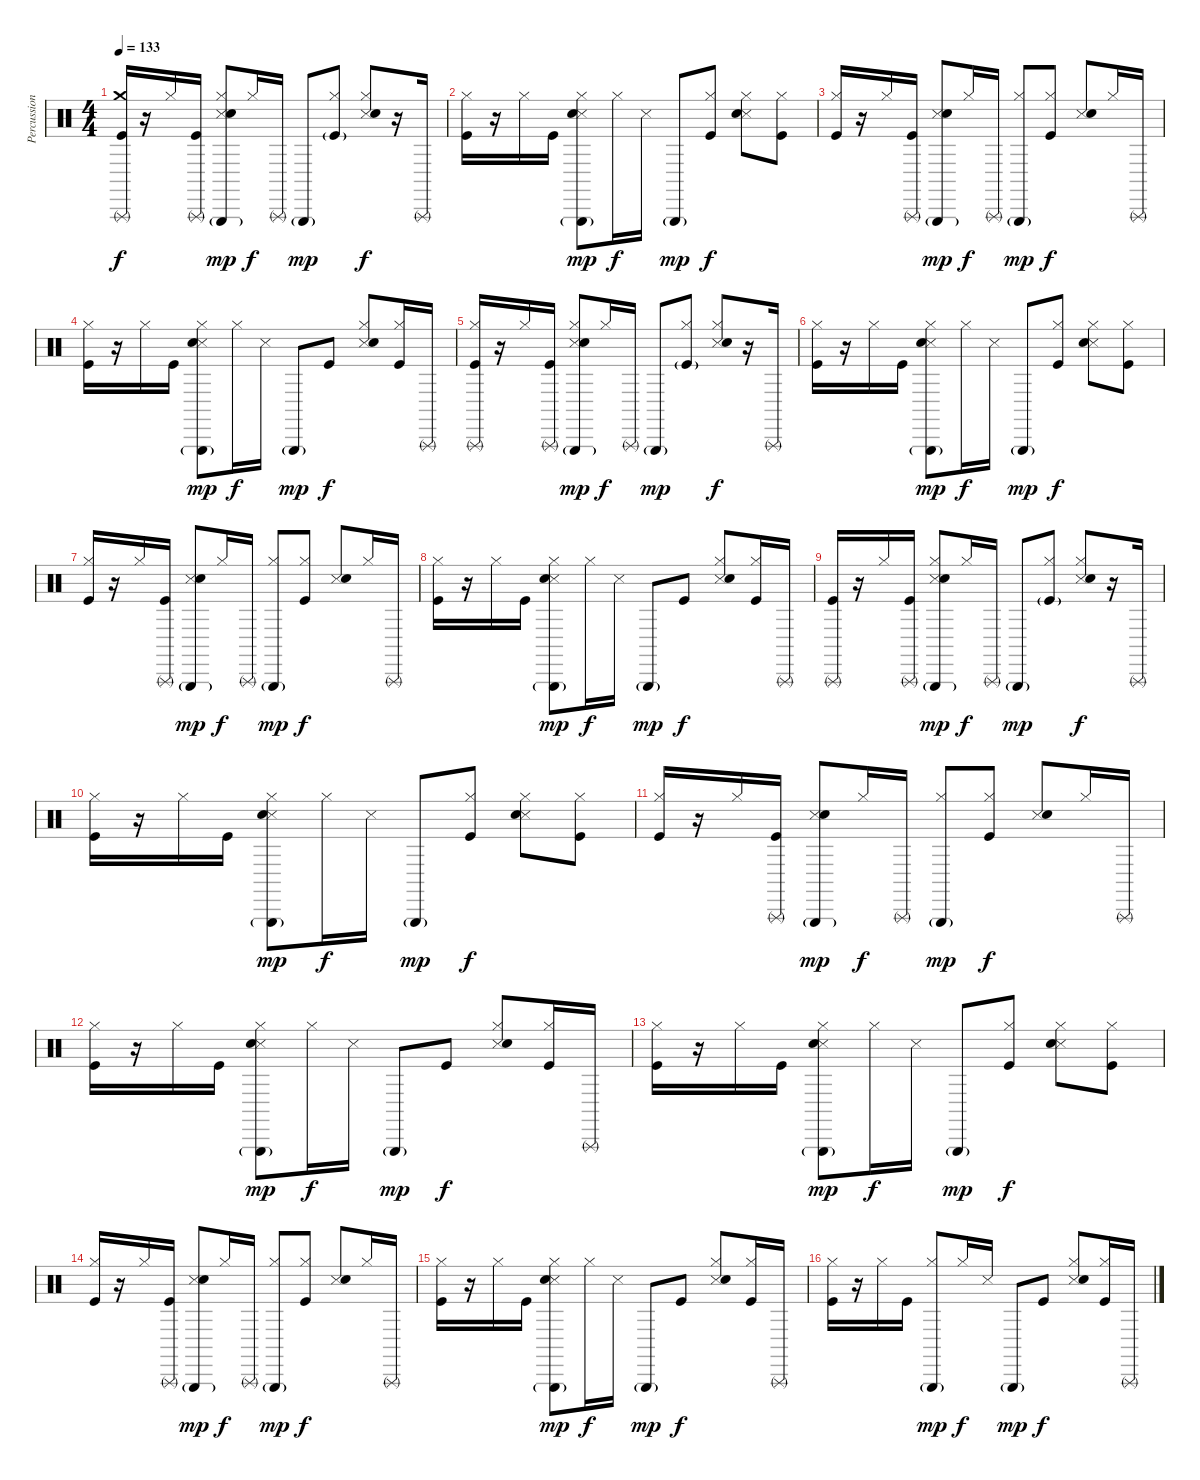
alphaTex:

\track ("Percussion" "Percussion") {instrument percussion}
\staff {score}
\articulation defaults
\ts (4 4)
\tempo 133
\clef neutral
\ks c
("Crash medium (hit)" "Triangle (rnute)" "Kick (hit)").16{dy f} r.16 "Hi-Hat (closed)".16 ("Triangle (rnute)" "Kick (hit)").16 ("Hi-Hat (closed)" "Triangle (hit)"{g} "Snare (side stick) 3" "Electric Snare (hit)").8{dy mp} "Hi-Hat (closed)".16{dy f} "Triangle (rnute)".16 "Triangle (hit)"{g}.8{dy mp} ("Hi-Hat (closed)" "Kick (hit)"{g}).8 ("Hi-Hat (closed)" "Snare (side stick) 3" "Electric Snare (hit)").8{dy f} r.16 "Triangle (rnute)".16 |
("Hi-Hat (closed)" "Kick (hit)").16 r.16 "Hi-Hat (closed)".16 "Kick (hit)".16 ("Hi-Hat (closed)" "Triangle (hit)"{g} "Snare (side stick) 3" "Electric Snare (hit)").8{dy mp} "Hi-Hat (closed)".16{dy f} "Snare (side stick) 3".16 "Triangle (hit)"{g}.8{dy mp} ("Hi-Hat (closed)" "Kick (hit)").8{dy f} ("Hi-Hat (closed)" "Snare (side stick) 3" "Electric Snare (hit)").8 ("Hi-Hat (closed)" "Kick (hit)").8 |
("Hi-Hat (closed)" "Kick (hit)").16 r.16 "Hi-Hat (closed)".16 ("Triangle (rnute)" "Kick (hit)").16 ("Triangle (hit)"{g} "Snare (side stick) 3" "Electric Snare (hit)").8{dy mp} "Hi-Hat (closed)".16{dy f} "Triangle (rnute)".16 ("Hi-Hat (closed)" "Triangle (hit)"{g}).8{dy mp} ("Hi-Hat (closed)" "Kick (hit)").8{dy f} ("Snare (side stick) 3" "Electric Snare (hit)").8 "Hi-Hat (closed)".16 "Triangle (rnute)".16 |
("Hi-Hat (closed)" "Kick (hit)").16 r.16 "Hi-Hat (closed)".16 "Kick (hit)".16 ("Hi-Hat (closed)" "Triangle (hit)"{g} "Snare (side stick) 3" "Electric Snare (hit)").8{dy mp} "Hi-Hat (closed)".16{dy f} "Snare (side stick) 3".16 "Triangle (hit)"{g}.8{dy mp} "Kick (hit)".8{dy f} ("Hi-Hat (closed)" "Snare (side stick) 3" "Electric Snare (hit)").8 ("Hi-Hat (closed)" "Kick (hit)").16 "Triangle (rnute)".16 |
("Hi-Hat (closed)" "Triangle (rnute)" "Kick (hit)").16 r.16 "Hi-Hat (closed)".16 ("Triangle (rnute)" "Kick (hit)").16 ("Hi-Hat (closed)" "Triangle (hit)"{g} "Snare (side stick) 3" "Electric Snare (hit)").8{dy mp} "Hi-Hat (closed)".16{dy f} "Triangle (rnute)".16 "Triangle (hit)"{g}.8{dy mp} ("Hi-Hat (closed)" "Kick (hit)"{g}).8 ("Hi-Hat (closed)" "Snare (side stick) 3" "Electric Snare (hit)").8{dy f} r.16 "Triangle (rnute)".16 |
("Hi-Hat (closed)" "Kick (hit)").16 r.16 "Hi-Hat (closed)".16 "Kick (hit)".16 ("Hi-Hat (closed)" "Triangle (hit)"{g} "Snare (side stick) 3" "Electric Snare (hit)").8{dy mp} "Hi-Hat (closed)".16{dy f} "Snare (side stick) 3".16 "Triangle (hit)"{g}.8{dy mp} ("Hi-Hat (closed)" "Kick (hit)").8{dy f} ("Hi-Hat (closed)" "Snare (side stick) 3" "Electric Snare (hit)").8 ("Hi-Hat (closed)" "Kick (hit)").8 |
("Hi-Hat (closed)" "Kick (hit)").16 r.16 "Hi-Hat (closed)".16 ("Triangle (rnute)" "Kick (hit)").16 ("Triangle (hit)"{g} "Snare (side stick) 3" "Electric Snare (hit)").8{dy mp} "Hi-Hat (closed)".16{dy f} "Triangle (rnute)".16 ("Hi-Hat (closed)" "Triangle (hit)"{g}).8{dy mp} ("Hi-Hat (closed)" "Kick (hit)").8{dy f} ("Snare (side stick) 3" "Electric Snare (hit)").8 "Hi-Hat (closed)".16 "Triangle (rnute)".16 |
("Hi-Hat (closed)" "Kick (hit)").16 r.16 "Hi-Hat (closed)".16 "Kick (hit)".16 ("Hi-Hat (closed)" "Triangle (hit)"{g} "Snare (side stick) 3" "Electric Snare (hit)").8{dy mp} "Hi-Hat (closed)".16{dy f} "Snare (side stick) 3".16 "Triangle (hit)"{g}.8{dy mp} "Kick (hit)".8{dy f} ("Hi-Hat (closed)" "Snare (side stick) 3" "Electric Snare (hit)").8 ("Hi-Hat (closed)" "Kick (hit)").16 "Triangle (rnute)".16 |
("Triangle (rnute)" "Kick (hit)").16 r.16 "Hi-Hat (closed)".16 ("Triangle (rnute)" "Kick (hit)").16 ("Hi-Hat (closed)" "Triangle (hit)"{g} "Snare (side stick) 3" "Electric Snare (hit)").8{dy mp} "Hi-Hat (closed)".16{dy f} "Triangle (rnute)".16 "Triangle (hit)"{g}.8{dy mp} ("Hi-Hat (closed)" "Kick (hit)"{g}).8 ("Hi-Hat (closed)" "Snare (side stick) 3" "Electric Snare (hit)").8{dy f} r.16 "Triangle (rnute)".16 |
("Hi-Hat (closed)" "Kick (hit)").16 r.16 "Hi-Hat (closed)".16 "Kick (hit)".16 ("Hi-Hat (closed)" "Triangle (hit)"{g} "Snare (side stick) 3" "Electric Snare (hit)").8{dy mp} "Hi-Hat (closed)".16{dy f} "Snare (side stick) 3".16 "Triangle (hit)"{g}.8{dy mp} ("Hi-Hat (closed)" "Kick (hit)").8{dy f} ("Hi-Hat (closed)" "Snare (side stick) 3" "Electric Snare (hit)").8 ("Hi-Hat (closed)" "Kick (hit)").8 |
("Hi-Hat (closed)" "Kick (hit)").16 r.16 "Hi-Hat (closed)".16 ("Triangle (rnute)" "Kick (hit)").16 ("Triangle (hit)"{g} "Snare (side stick) 3" "Electric Snare (hit)").8{dy mp} "Hi-Hat (closed)".16{dy f} "Triangle (rnute)".16 ("Hi-Hat (closed)" "Triangle (hit)"{g}).8{dy mp} ("Hi-Hat (closed)" "Kick (hit)").8{dy f} ("Snare (side stick) 3" "Electric Snare (hit)").8 "Hi-Hat (closed)".16 "Triangle (rnute)".16 |
("Hi-Hat (closed)" "Kick (hit)").16 r.16 "Hi-Hat (closed)".16 "Kick (hit)".16 ("Hi-Hat (closed)" "Triangle (hit)"{g} "Snare (side stick) 3" "Electric Snare (hit)").8{dy mp} "Hi-Hat (closed)".16{dy f} "Snare (side stick) 3".16 "Triangle (hit)"{g}.8{dy mp} "Kick (hit)".8{dy f} ("Hi-Hat (closed)" "Snare (side stick) 3" "Electric Snare (hit)").8 ("Hi-Hat (closed)" "Kick (hit)").16 "Triangle (rnute)".16 |
("Hi-Hat (closed)" "Kick (hit)").16 r.16 "Hi-Hat (closed)".16 "Kick (hit)".16 ("Hi-Hat (closed)" "Triangle (hit)"{g} "Snare (side stick) 3" "Electric Snare (hit)").8{dy mp} "Hi-Hat (closed)".16{dy f} "Snare (side stick) 3".16 "Triangle (hit)"{g}.8{dy mp} ("Hi-Hat (closed)" "Kick (hit)").8{dy f} ("Hi-Hat (closed)" "Snare (side stick) 3" "Electric Snare (hit)").8 ("Hi-Hat (closed)" "Kick (hit)").8 |
("Hi-Hat (closed)" "Kick (hit)").16 r.16 "Hi-Hat (closed)".16 ("Triangle (rnute)" "Kick (hit)").16 ("Triangle (hit)"{g} "Snare (side stick) 3" "Electric Snare (hit)").8{dy mp} "Hi-Hat (closed)".16{dy f} "Triangle (rnute)".16 ("Hi-Hat (closed)" "Triangle (hit)"{g}).8{dy mp} ("Hi-Hat (closed)" "Kick (hit)").8{dy f} ("Snare (side stick) 3" "Electric Snare (hit)").8 "Hi-Hat (closed)".16 "Triangle (rnute)".16 |
("Hi-Hat (closed)" "Kick (hit)").16 r.16 "Hi-Hat (closed)".16 "Kick (hit)".16 ("Hi-Hat (closed)" "Triangle (hit)"{g} "Snare (side stick) 3" "Electric Snare (hit)").8{dy mp} "Hi-Hat (closed)".16{dy f} "Snare (side stick) 3".16 "Triangle (hit)"{g}.8{dy mp} "Kick (hit)".8{dy f} ("Hi-Hat (closed)" "Snare (side stick) 3" "Electric Snare (hit)").8 ("Hi-Hat (closed)" "Kick (hit)").16 "Triangle (rnute)".16 |
("Hi-Hat (closed)" "Kick (hit)").16 r.16 "Hi-Hat (closed)".16 "Kick (hit)".16 ("Hi-Hat (closed)" "Triangle (hit)"{g}).8{dy mp} "Hi-Hat (closed)".16{dy f} "Snare (side stick) 3".16 "Triangle (hit)"{g}.8{dy mp} "Kick (hit)".8{dy f} ("Hi-Hat (closed)" "Snare (side stick) 3" "Electric Snare (hit)").8 ("Hi-Hat (closed)" "Kick (hit)").16 "Triangle (rnute)".16
